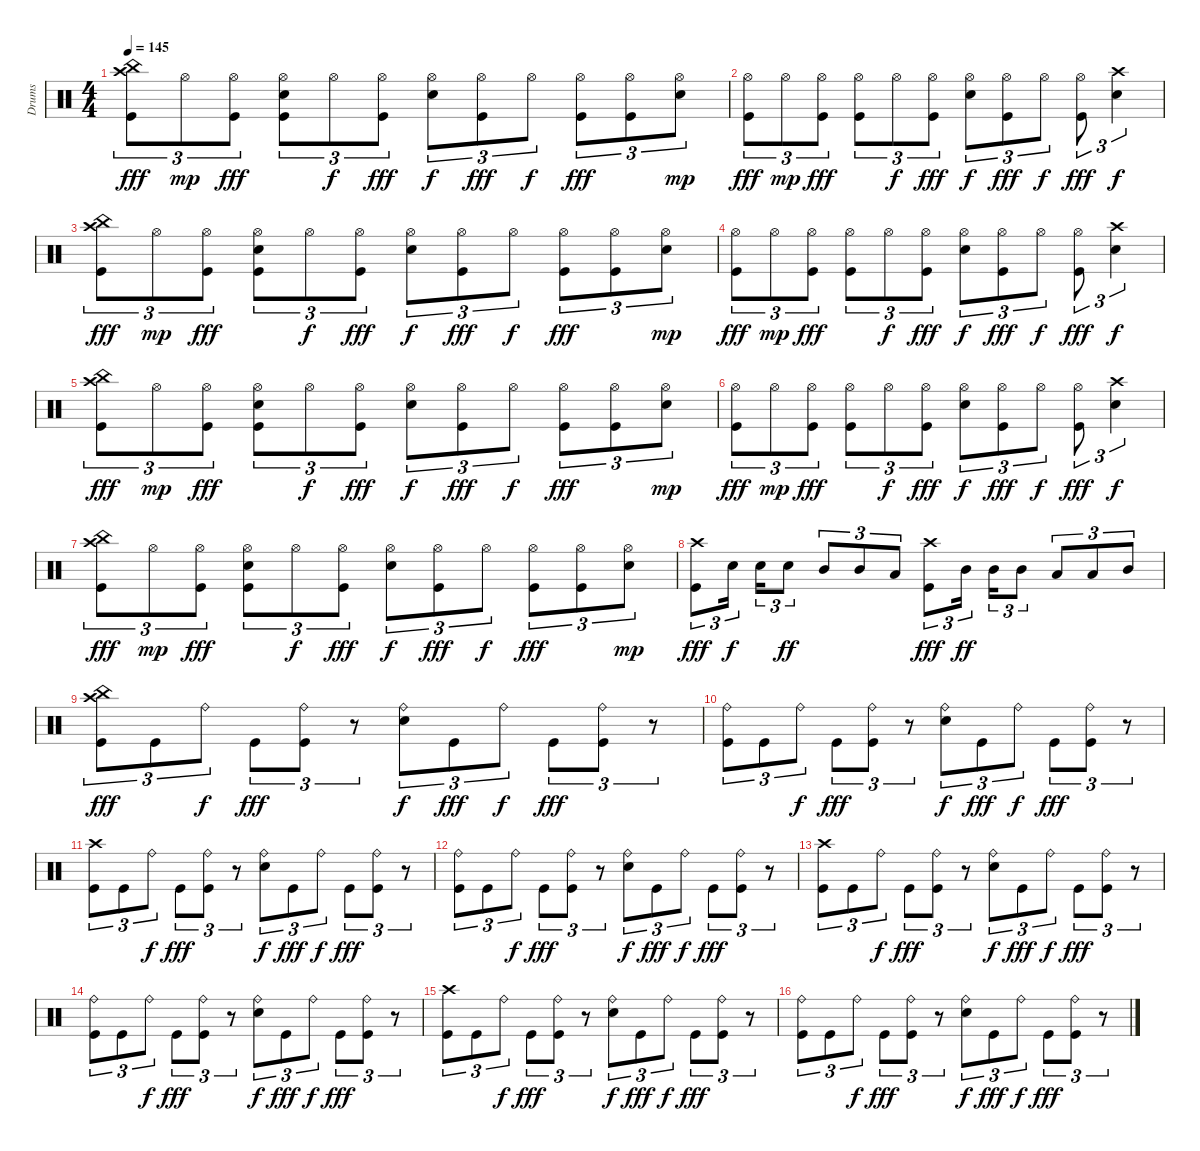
\track ("Drums" "Drums") {instrument percussion}
\staff {score}
\articulation defaults
\ts (4 4)
\tempo 145
\clef neutral
\ks c
("Crash high (hit)" "China (hit)" "Kick (hit)").8{tu (3 2) dy fff} "Hi-Hat (open)".8{tu (3 2) dy mp} ("Hi-Hat (open)" "Kick (hit)").8{tu (3 2) dy fff} ("Hi-Hat (open)" "Snare (hit)" "Kick (hit)").8{tu (3 2)} "Hi-Hat (open)".8{tu (3 2) dy f} ("Hi-Hat (open)" "Kick (hit)").8{tu (3 2) dy fff} ("Hi-Hat (open)" "Electric Snare (hit)").8{tu (3 2) dy f} ("Hi-Hat (open)" "Kick (hit)").8{tu (3 2) dy fff} "Hi-Hat (open)".8{tu (3 2) dy f} ("Hi-Hat (open)" "Kick (hit)").8{tu (3 2) dy fff} ("Hi-Hat (open)" "Kick (hit)").8{tu (3 2)} ("Hi-Hat (open)" "Electric Snare (hit)").8{tu (3 2) dy mp} |
("Hi-Hat (open)" "Kick (hit)").8{tu (3 2) dy fff} "Hi-Hat (open)".8{tu (3 2) dy mp} ("Hi-Hat (open)" "Kick (hit)").8{tu (3 2) dy fff} ("Hi-Hat (open)" "Kick (hit)").8{tu (3 2)} "Hi-Hat (open)".8{tu (3 2) dy f} ("Hi-Hat (open)" "Kick (hit)").8{tu (3 2) dy fff} ("Hi-Hat (open)" "Electric Snare (hit)").8{tu (3 2) dy f} ("Hi-Hat (open)" "Kick (hit)").8{tu (3 2) dy fff} "Hi-Hat (open)".8{tu (3 2) dy f} ("Hi-Hat (open)" "Kick (hit)").8{tu (3 2) dy fff} ("Crash high (hit)" "Electric Snare (hit)").4{tu (3 2) dy f} |
("Crash high (hit)" "China (hit)" "Kick (hit)").8{tu (3 2) dy fff} "Hi-Hat (open)".8{tu (3 2) dy mp} ("Hi-Hat (open)" "Kick (hit)").8{tu (3 2) dy fff} ("Hi-Hat (open)" "Snare (hit)" "Kick (hit)").8{tu (3 2)} "Hi-Hat (open)".8{tu (3 2) dy f} ("Hi-Hat (open)" "Kick (hit)").8{tu (3 2) dy fff} ("Hi-Hat (open)" "Electric Snare (hit)").8{tu (3 2) dy f} ("Hi-Hat (open)" "Kick (hit)").8{tu (3 2) dy fff} "Hi-Hat (open)".8{tu (3 2) dy f} ("Hi-Hat (open)" "Kick (hit)").8{tu (3 2) dy fff} ("Hi-Hat (open)" "Kick (hit)").8{tu (3 2)} ("Hi-Hat (open)" "Electric Snare (hit)").8{tu (3 2) dy mp} |
("Hi-Hat (open)" "Kick (hit)").8{tu (3 2) dy fff} "Hi-Hat (open)".8{tu (3 2) dy mp} ("Hi-Hat (open)" "Kick (hit)").8{tu (3 2) dy fff} ("Hi-Hat (open)" "Kick (hit)").8{tu (3 2)} "Hi-Hat (open)".8{tu (3 2) dy f} ("Hi-Hat (open)" "Kick (hit)").8{tu (3 2) dy fff} ("Hi-Hat (open)" "Electric Snare (hit)").8{tu (3 2) dy f} ("Hi-Hat (open)" "Kick (hit)").8{tu (3 2) dy fff} "Hi-Hat (open)".8{tu (3 2) dy f} ("Hi-Hat (open)" "Kick (hit)").8{tu (3 2) dy fff} ("Crash high (hit)" "Electric Snare (hit)").4{tu (3 2) dy f} |
("Crash high (hit)" "China (hit)" "Kick (hit)").8{tu (3 2) dy fff} "Hi-Hat (open)".8{tu (3 2) dy mp} ("Hi-Hat (open)" "Kick (hit)").8{tu (3 2) dy fff} ("Hi-Hat (open)" "Snare (hit)" "Kick (hit)").8{tu (3 2)} "Hi-Hat (open)".8{tu (3 2) dy f} ("Hi-Hat (open)" "Kick (hit)").8{tu (3 2) dy fff} ("Hi-Hat (open)" "Electric Snare (hit)").8{tu (3 2) dy f} ("Hi-Hat (open)" "Kick (hit)").8{tu (3 2) dy fff} "Hi-Hat (open)".8{tu (3 2) dy f} ("Hi-Hat (open)" "Kick (hit)").8{tu (3 2) dy fff} ("Hi-Hat (open)" "Kick (hit)").8{tu (3 2)} ("Hi-Hat (open)" "Electric Snare (hit)").8{tu (3 2) dy mp} |
("Hi-Hat (open)" "Kick (hit)").8{tu (3 2) dy fff} "Hi-Hat (open)".8{tu (3 2) dy mp} ("Hi-Hat (open)" "Kick (hit)").8{tu (3 2) dy fff} ("Hi-Hat (open)" "Kick (hit)").8{tu (3 2)} "Hi-Hat (open)".8{tu (3 2) dy f} ("Hi-Hat (open)" "Kick (hit)").8{tu (3 2) dy fff} ("Hi-Hat (open)" "Electric Snare (hit)").8{tu (3 2) dy f} ("Hi-Hat (open)" "Kick (hit)").8{tu (3 2) dy fff} "Hi-Hat (open)".8{tu (3 2) dy f} ("Hi-Hat (open)" "Kick (hit)").8{tu (3 2) dy fff} ("Crash high (hit)" "Electric Snare (hit)").4{tu (3 2) dy f} |
("Crash high (hit)" "China (hit)" "Kick (hit)").8{tu (3 2) dy fff} "Hi-Hat (open)".8{tu (3 2) dy mp} ("Hi-Hat (open)" "Kick (hit)").8{tu (3 2) dy fff} ("Hi-Hat (open)" "Snare (hit)" "Kick (hit)").8{tu (3 2)} "Hi-Hat (open)".8{tu (3 2) dy f} ("Hi-Hat (open)" "Kick (hit)").8{tu (3 2) dy fff} ("Hi-Hat (open)" "Electric Snare (hit)").8{tu (3 2) dy f} ("Hi-Hat (open)" "Kick (hit)").8{tu (3 2) dy fff} "Hi-Hat (open)".8{tu (3 2) dy f} ("Hi-Hat (open)" "Kick (hit)").8{tu (3 2) dy fff} ("Hi-Hat (open)" "Kick (hit)").8{tu (3 2)} ("Hi-Hat (open)" "Electric Snare (hit)").8{tu (3 2) dy mp} |
("Crash high (hit)" "Kick (hit)").8{tu (3 2) dy fff} "Electric Snare (hit)".16{tu (3 2) dy f} "Electric Snare (hit)".16{tu (3 2)} "Electric Snare (hit)".8{tu (3 2) dy ff} "Mid Tom (hit)".8{tu (3 2)} "Mid Tom (hit)".8{tu (3 2)} "Low Tom (hit)".8{tu (3 2)} ("Crash high (hit)" "Kick (hit)").8{tu (3 2) dy fff} "Mid Tom (hit)".16{tu (3 2) dy ff} "Mid Tom (hit)".16{tu (3 2)} "Mid Tom (hit)".8{tu (3 2)} "Low Tom (hit)".8{tu (3 2)} "Low Tom (hit)".8{tu (3 2)} "Mid Tom (hit)".8{tu (3 2)} |
("Crash high (hit)" "China (hit)" "Kick (hit)").8{tu (3 2) dy fff} "Kick (hit)".8{tu (3 2)} "Ride (bell)".8{tu (3 2) dy f} "Kick (hit)".8{tu (3 2) dy fff} ("Ride (bell)" "Kick (hit)").8{tu (3 2)} r.8{tu (3 2)} ("Ride (bell)" "Electric Snare (hit)").8{tu (3 2) dy f} "Kick (hit)".8{tu (3 2) dy fff} "Ride (bell)".8{tu (3 2) dy f} "Kick (hit)".8{tu (3 2) dy fff} ("Ride (bell)" "Kick (hit)").8{tu (3 2)} r.8{tu (3 2)} |
("Ride (bell)" "Kick (hit)").8{tu (3 2)} "Kick (hit)".8{tu (3 2)} "Ride (bell)".8{tu (3 2) dy f} "Kick (hit)".8{tu (3 2) dy fff} ("Ride (bell)" "Kick (hit)").8{tu (3 2)} r.8{tu (3 2)} ("Ride (bell)" "Electric Snare (hit)").8{tu (3 2) dy f} "Kick (hit)".8{tu (3 2) dy fff} "Ride (bell)".8{tu (3 2) dy f} "Kick (hit)".8{tu (3 2) dy fff} ("Ride (bell)" "Kick (hit)").8{tu (3 2)} r.8{tu (3 2)} |
("Crash high (hit)" "Kick (hit)").8{tu (3 2)} "Kick (hit)".8{tu (3 2)} "Ride (bell)".8{tu (3 2) dy f} "Kick (hit)".8{tu (3 2) dy fff} ("Ride (bell)" "Kick (hit)").8{tu (3 2)} r.8{tu (3 2)} ("Ride (bell)" "Electric Snare (hit)").8{tu (3 2) dy f} "Kick (hit)".8{tu (3 2) dy fff} "Ride (bell)".8{tu (3 2) dy f} "Kick (hit)".8{tu (3 2) dy fff} ("Ride (bell)" "Kick (hit)").8{tu (3 2)} r.8{tu (3 2)} |
("Ride (bell)" "Kick (hit)").8{tu (3 2)} "Kick (hit)".8{tu (3 2)} "Ride (bell)".8{tu (3 2) dy f} "Kick (hit)".8{tu (3 2) dy fff} ("Ride (bell)" "Kick (hit)").8{tu (3 2)} r.8{tu (3 2)} ("Ride (bell)" "Electric Snare (hit)").8{tu (3 2) dy f} "Kick (hit)".8{tu (3 2) dy fff} "Ride (bell)".8{tu (3 2) dy f} "Kick (hit)".8{tu (3 2) dy fff} ("Ride (bell)" "Kick (hit)").8{tu (3 2)} r.8{tu (3 2)} |
("Crash high (hit)" "Kick (hit)").8{tu (3 2)} "Kick (hit)".8{tu (3 2)} "Ride (bell)".8{tu (3 2) dy f} "Kick (hit)".8{tu (3 2) dy fff} ("Ride (bell)" "Kick (hit)").8{tu (3 2)} r.8{tu (3 2)} ("Ride (bell)" "Electric Snare (hit)").8{tu (3 2) dy f} "Kick (hit)".8{tu (3 2) dy fff} "Ride (bell)".8{tu (3 2) dy f} "Kick (hit)".8{tu (3 2) dy fff} ("Ride (bell)" "Kick (hit)").8{tu (3 2)} r.8{tu (3 2)} |
("Ride (bell)" "Kick (hit)").8{tu (3 2)} "Kick (hit)".8{tu (3 2)} "Ride (bell)".8{tu (3 2) dy f} "Kick (hit)".8{tu (3 2) dy fff} ("Ride (bell)" "Kick (hit)").8{tu (3 2)} r.8{tu (3 2)} ("Ride (bell)" "Electric Snare (hit)").8{tu (3 2) dy f} "Kick (hit)".8{tu (3 2) dy fff} "Ride (bell)".8{tu (3 2) dy f} "Kick (hit)".8{tu (3 2) dy fff} ("Ride (bell)" "Kick (hit)").8{tu (3 2)} r.8{tu (3 2)} |
("Crash high (hit)" "Kick (hit)").8{tu (3 2)} "Kick (hit)".8{tu (3 2)} "Ride (bell)".8{tu (3 2) dy f} "Kick (hit)".8{tu (3 2) dy fff} ("Ride (bell)" "Kick (hit)").8{tu (3 2)} r.8{tu (3 2)} ("Ride (bell)" "Electric Snare (hit)").8{tu (3 2) dy f} "Kick (hit)".8{tu (3 2) dy fff} "Ride (bell)".8{tu (3 2) dy f} "Kick (hit)".8{tu (3 2) dy fff} ("Ride (bell)" "Kick (hit)").8{tu (3 2)} r.8{tu (3 2)} |
("Ride (bell)" "Kick (hit)").8{tu (3 2)} "Kick (hit)".8{tu (3 2)} "Ride (bell)".8{tu (3 2) dy f} "Kick (hit)".8{tu (3 2) dy fff} ("Ride (bell)" "Kick (hit)").8{tu (3 2)} r.8{tu (3 2)} ("Ride (bell)" "Electric Snare (hit)").8{tu (3 2) dy f} "Kick (hit)".8{tu (3 2) dy fff} "Ride (bell)".8{tu (3 2) dy f} "Kick (hit)".8{tu (3 2) dy fff} ("Ride (bell)" "Kick (hit)").8{tu (3 2)} r.8{tu (3 2)}
